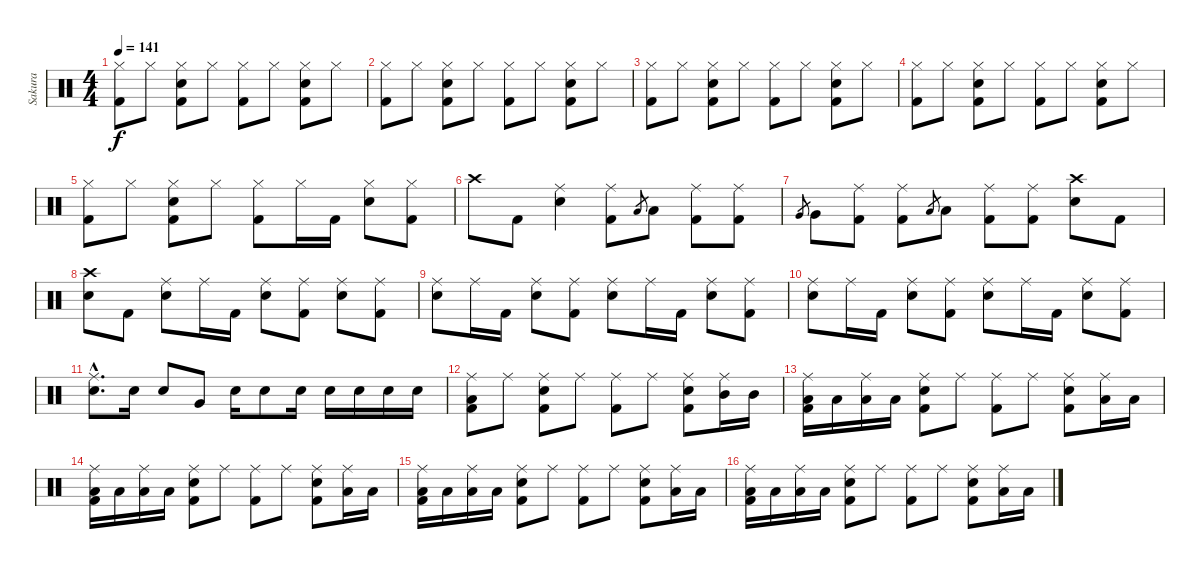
\track ("Sakura" "Sakura") {instrument percussion}
\staff {score}
\articulation defaults
\ts (4 4)
\tempo 141
\clef neutral
\ks c
("Hi-Hat (closed)" "Kick (hit) 2").8{dy f} "Hi-Hat (closed)".8 ("Hi-Hat (closed)" "Snare (hit) 2" "Kick (hit) 2").8 "Hi-Hat (closed)".8 ("Hi-Hat (closed)" "Kick (hit) 2").8 "Hi-Hat (closed)".8 ("Hi-Hat (closed)" "Snare (hit) 2" "Kick (hit) 2").8 "Hi-Hat (closed)".8 |
("Hi-Hat (closed)" "Kick (hit) 2").8 "Hi-Hat (closed)".8 ("Hi-Hat (closed)" "Snare (hit) 2" "Kick (hit) 2").8 "Hi-Hat (closed)".8 ("Hi-Hat (closed)" "Kick (hit) 2").8 "Hi-Hat (closed)".8 ("Hi-Hat (closed)" "Snare (hit) 2" "Kick (hit) 2").8 "Hi-Hat (closed)".8 |
("Hi-Hat (closed)" "Kick (hit) 2").8 "Hi-Hat (closed)".8 ("Hi-Hat (closed)" "Snare (hit) 2" "Kick (hit) 2").8 "Hi-Hat (closed)".8 ("Hi-Hat (closed)" "Kick (hit) 2").8 "Hi-Hat (closed)".8 ("Hi-Hat (closed)" "Snare (hit) 2" "Kick (hit) 2").8 "Hi-Hat (closed)".8 |
("Hi-Hat (closed)" "Kick (hit) 2").8 "Hi-Hat (closed)".8 ("Hi-Hat (closed)" "Snare (hit) 2" "Kick (hit) 2").8 "Hi-Hat (closed)".8 ("Hi-Hat (closed)" "Kick (hit) 2").8 "Hi-Hat (closed)".8 ("Hi-Hat (closed)" "Snare (hit) 2" "Kick (hit) 2").8 "Hi-Hat (closed)".8 |
("Hi-Hat (closed)" "Kick (hit) 2").8 "Hi-Hat (closed)".8 ("Hi-Hat (closed)" "Snare (hit) 2" "Kick (hit) 2").8 "Hi-Hat (closed)".8 ("Hi-Hat (closed)" "Kick (hit) 2").8 "Hi-Hat (closed)".16 "Kick (hit) 2".16 ("Hi-Hat (closed)" "Snare (hit) 2").8 ("Hi-Hat (closed)" "Kick (hit) 2").8 |
"Crash high (hit)".8 "Kick (hit) 2".8 ("Ride (middle)" "Snare (hit) 2").4 ("Ride (middle)" "Kick (hit) 2").8 "Low Tom (hit)".8{gr} "Low Tom (hit)".8 ("Ride (middle)" "Kick (hit) 2").8 ("Ride (middle)" "Kick (hit) 2").8 |
"Very Low Tom (hit)".8{gr} "Very Low Tom (hit)".8 ("Ride (middle)" "Kick (hit) 2").8 ("Ride (middle)" "Kick (hit) 2").8 "Low Tom (hit)".8{gr} "Low Tom (hit)".8 ("Ride (middle)" "Kick (hit) 2").8 ("Ride (middle)" "Kick (hit) 2").8 ("Crash high (hit)" "Snare (hit) 2").8 "Kick (hit) 2".8 |
("Crash high (hit)" "Snare (hit) 2").8 "Kick (hit) 2".8 ("Ride (middle)" "Snare (hit) 2").8 "Ride (middle)".16 "Kick (hit) 2".16 ("Ride (middle)" "Snare (hit) 2").8 ("Ride (middle)" "Kick (hit) 2").8 ("Ride (middle)" "Snare (hit) 2").8 ("Ride (middle)" "Kick (hit) 2").8 |
("Ride (middle)" "Snare (hit) 2").8 "Ride (middle)".16 "Kick (hit) 2".16 ("Ride (middle)" "Snare (hit) 2").8 ("Ride (middle)" "Kick (hit) 2").8 ("Ride (middle)" "Snare (hit) 2").8 "Ride (middle)".16 "Kick (hit) 2".16 ("Ride (middle)" "Snare (hit) 2").8 ("Ride (middle)" "Kick (hit) 2").8 |
("Ride (middle)" "Snare (hit) 2").8 "Ride (middle)".16 "Kick (hit) 2".16 ("Ride (middle)" "Snare (hit) 2").8 ("Ride (middle)" "Kick (hit) 2").8 ("Ride (middle)" "Snare (hit) 2").8 "Ride (middle)".16 "Kick (hit) 2".16 ("Ride (middle)" "Snare (hit) 2").8 ("Ride (middle)" "Kick (hit) 2").8 |
("Ride (middle)"{hac} "Snare (hit) 2"{hac}).8{d} "Snare (hit) 2".16 "Snare (hit) 2".8 "Very Low Tom (hit)".8 "Snare (hit) 2".16 "Snare (hit) 2".8 "Snare (hit) 2".16 "Snare (hit) 2".16 "Snare (hit) 2".16 "Snare (hit) 2".16 "Snare (hit) 2".16 |
("Ride (middle)" "Low Tom (hit)" "Kick (hit) 2").8 "Ride (middle)".8 ("Ride (middle)" "Snare (hit) 2" "Kick (hit) 2").8 "Ride (middle)".8 ("Ride (middle)" "Kick (hit) 2").8 "Ride (middle)".8 ("Ride (middle)" "Snare (hit) 2" "Kick (hit) 2").8 ("Ride (middle)" "Mid Tom (hit)").16 "Mid Tom (hit)".16 |
("Ride (middle)" "Low Tom (hit)" "Kick (hit) 2").16 "Low Tom (hit)".16 ("Ride (middle)" "Low Floor Tom (hit)").16 "Low Floor Tom (hit)".16 ("Ride (middle)" "Snare (hit) 2" "Kick (hit) 2").8 "Ride (middle)".8 ("Ride (middle)" "Kick (hit) 2").8 "Ride (middle)".8 ("Ride (middle)" "Snare (hit) 2" "Kick (hit) 2").8 ("Ride (middle)" "Low Tom (hit)").16 "Low Tom (hit)".16 |
("Ride (middle)" "Low Tom (hit)" "Kick (hit) 2").16 "Low Tom (hit)".16 ("Ride (middle)" "Low Floor Tom (hit)").16 "Low Floor Tom (hit)".16 ("Ride (middle)" "Snare (hit) 2" "Kick (hit) 2").8 "Ride (middle)".8 ("Ride (middle)" "Kick (hit) 2").8 "Ride (middle)".8 ("Ride (middle)" "Snare (hit) 2" "Kick (hit) 2").8 ("Ride (middle)" "Low Tom (hit)").16 "Low Tom (hit)".16 |
("Ride (middle)" "Low Tom (hit)" "Kick (hit) 2").16 "Low Tom (hit)".16 ("Ride (middle)" "Low Floor Tom (hit)").16 "Low Floor Tom (hit)".16 ("Ride (middle)" "Snare (hit) 2" "Kick (hit) 2").8 "Ride (middle)".8 ("Ride (middle)" "Kick (hit) 2").8 "Ride (middle)".8 ("Ride (middle)" "Snare (hit) 2" "Kick (hit) 2").8 ("Ride (middle)" "Low Tom (hit)").16 "Low Tom (hit)".16 |
("Ride (middle)" "Low Tom (hit)" "Kick (hit) 2").16 "Low Tom (hit)".16 ("Ride (middle)" "Low Floor Tom (hit)").16 "Low Floor Tom (hit)".16 ("Ride (middle)" "Snare (hit) 2" "Kick (hit) 2").8 "Ride (middle)".8 ("Ride (middle)" "Kick (hit) 2").8 "Ride (middle)".8 ("Ride (middle)" "Snare (hit) 2" "Kick (hit) 2").8 ("Ride (middle)" "Low Tom (hit)").16 "Low Tom (hit)".16
